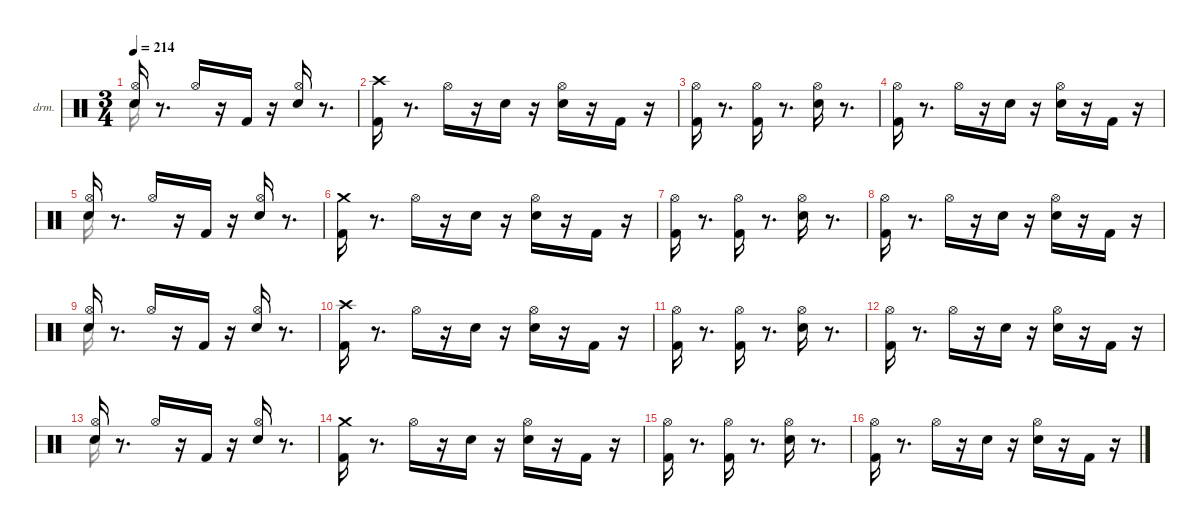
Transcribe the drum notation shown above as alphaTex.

\hideDynamics
\bracketExtendMode nobrackets
\firstSystemTrackNameOrientation horizontal
\otherSystemsTrackNameOrientation horizontal
\track ("EZdrummer 3" "drm.") {instrument percussion}
\staff {score}
\articulation defaults
\voice
\ts (3 4)
\tempo 214
\clef neutral
\ks aminor
("Snare (hit) 2" "Hi-Hat (open)"{acc #}).16{dy pp} r.8{d} "Hi-Hat (open)"{acc #}.16{dy f} r.16 "Kick (hit) 2".16{dy mp} r.16 ("Snare (hit) 2" "Hi-Hat (open)"{acc #}).16{dy ff} r.8{d} |
("Kick (hit) 2" "Crash high (hit)"{acc #}).16 r.8{d} "Hi-Hat (open)"{acc #}.16{dy mf} r.16 "Snare (hit) 2".16{dy f} r.16 ("Snare (hit) 2" "Hi-Hat (open)"{acc #}).16 r.16 "Kick (hit) 2".16{dy mp} r.16 |
("Kick (hit) 2" "Hi-Hat (open)"{acc #}).16{dy f} r.8{d} ("Kick (hit) 2" "Hi-Hat (open)"{acc #}).16{dy mf} r.8{d} ("Snare (hit) 2" "Hi-Hat (open)"{acc #}).16{dy f} r.8{d} |
("Kick (hit) 2" "Hi-Hat (open)"{acc #}).16{dy mf} r.8{d} "Hi-Hat (open)"{acc #}.16{dy mp} r.16 "Snare (hit) 2".16{dy f} r.16 ("Snare (hit) 2" "Hi-Hat (open)"{acc #}).16{dy p} r.16 "Kick (hit) 2".16{dy mf} r.16 |
("Snare (hit) 2" "Hi-Hat (open)"{acc #}).16{dy pp} r.8{d} "Hi-Hat (open)"{acc #}.16{dy f} r.16 "Kick (hit) 2".16{dy mp} r.16 ("Snare (hit) 2" "Hi-Hat (open)"{acc #}).16 r.8{d} |
("Kick (hit) 2" "Crash medium (hit)").16{dy ff} r.8{d} "Hi-Hat (open)"{acc #}.16{dy mf} r.16 "Snare (hit) 2".16{dy f} r.16 ("Snare (hit) 2" "Hi-Hat (open)"{acc #}).16{dy p} r.16 "Kick (hit) 2".16{dy mp} r.16 |
("Kick (hit) 2" "Hi-Hat (open)"{acc #}).16{dy f} r.8{d} ("Kick (hit) 2" "Hi-Hat (open)"{acc #}).16{dy mf} r.8{d} ("Snare (hit) 2" "Hi-Hat (open)"{acc #}).16{dy f} r.8{d} |
("Kick (hit) 2" "Hi-Hat (open)"{acc #}).16{dy mf} r.8{d} "Hi-Hat (open)"{acc #}.16{dy mp} r.16 "Snare (hit) 2".16{dy f} r.16 ("Snare (hit) 2" "Hi-Hat (open)"{acc #}).16{dy p} r.16 "Kick (hit) 2".16{dy mf} r.16 |
("Snare (hit) 2" "Hi-Hat (open)"{acc #}).16{dy pp} r.8{d} "Hi-Hat (open)"{acc #}.16{dy f} r.16 "Kick (hit) 2".16{dy mp} r.16 ("Snare (hit) 2" "Hi-Hat (open)"{acc #}).16{dy ff} r.8{d} |
("Kick (hit) 2" "Crash high (hit)"{acc #}).16{dy fff} r.8{d} "Hi-Hat (open)"{acc #}.16{dy mf} r.16 "Snare (hit) 2".16{dy f} r.16 ("Snare (hit) 2" "Hi-Hat (open)"{acc #}).16{dy p} r.16 "Kick (hit) 2".16{dy mp} r.16 |
("Kick (hit) 2" "Hi-Hat (open)"{acc #}).16{dy f} r.8{d} ("Kick (hit) 2" "Hi-Hat (open)"{acc #}).16{dy mf} r.8{d} ("Snare (hit) 2" "Hi-Hat (open)"{acc #}).16{dy mp} r.8{d} |
("Kick (hit) 2" "Hi-Hat (open)"{acc #}).16{dy ff} r.8{d} "Hi-Hat (open)"{acc #}.16{dy mp} r.16 "Snare (hit) 2".16{dy f} r.16 ("Snare (hit) 2" "Hi-Hat (open)"{acc #}).16{dy p} r.16 "Kick (hit) 2".16{dy mf} r.16 |
("Snare (hit) 2" "Hi-Hat (open)"{acc #}).16{dy pp} r.8{d} "Hi-Hat (open)"{acc #}.16{dy f} r.16 "Kick (hit) 2".16{dy mp} r.16 ("Snare (hit) 2" "Hi-Hat (open)"{acc #}).16{dy ff} r.8{d} |
("Kick (hit) 2" "Crash medium (hit)").16 r.8{d} "Hi-Hat (open)"{acc #}.16{dy mf} r.16 "Snare (hit) 2".16{dy f} r.16 ("Snare (hit) 2" "Hi-Hat (open)"{acc #}).16{dy p} r.16 "Kick (hit) 2".16{dy mp} r.16 |
("Kick (hit) 2" "Hi-Hat (open)"{acc #}).16 r.8{d} ("Kick (hit) 2" "Hi-Hat (open)"{acc #}).16{dy f} r.8{d} ("Snare (hit) 2" "Hi-Hat (open)"{acc #}).16{dy mp} r.8{d} |
("Kick (hit) 2" "Hi-Hat (open)"{acc #}).16{dy mf} r.8{d} "Hi-Hat (open)"{acc #}.16{dy mp} r.16 "Snare (hit) 2".16{dy f} r.16 ("Snare (hit) 2" "Hi-Hat (open)"{acc #}).16{dy p} r.16 "Kick (hit) 2".16{dy mf} r.16
\voice
\clef neutral
\ottava regular
\simile none
\ks aminor "Snare (hit) 2".16{dy ff}
|
|
|
|
"Snare (hit) 2".16 |
|
|
|
"Snare (hit) 2".16 |
|
|
|
"Snare (hit) 2".16 |
|
|
